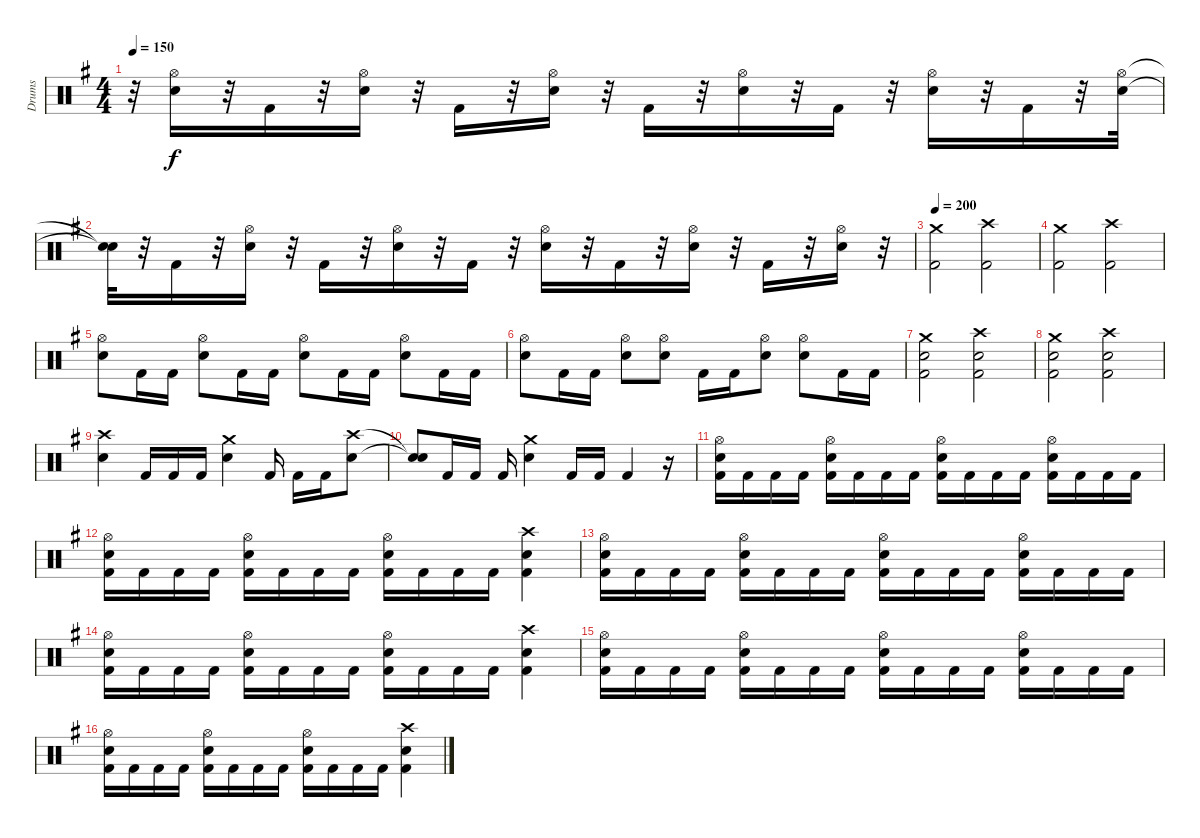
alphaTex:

\track ("Drums" "Drums") {instrument percussion}
\staff {score}
\articulation defaults
\ts (4 4)
\tempo 150
\clef neutral
\ks eminor
r.32{dy f} ("Hi-Hat (open)" "Snare (hit) 2").16 r.32 "Kick (hit) 2".16 r.32 ("Hi-Hat (open)" "Snare (hit) 2").16 r.32 "Kick (hit) 2".16 r.32 ("Hi-Hat (open)" "Snare (hit) 2").16 r.32 "Kick (hit) 2".16 r.32 ("Hi-Hat (open)" "Snare (hit) 2").16 r.32 "Kick (hit) 2".16 r.32 ("Hi-Hat (open)" "Snare (hit) 2").16 r.32 "Kick (hit) 2".16 r.32 ("Hi-Hat (open)" "Snare (hit) 2").32 |
("Snare (hit)"{t} "Snare (hit)"{t}).32 r.32 "Kick (hit) 2".16 r.32 ("Hi-Hat (open)" "Snare (hit) 2").16 r.32 "Kick (hit) 2".16 r.32 ("Hi-Hat (open)" "Snare (hit) 2").16 r.32 "Kick (hit) 2".16 r.32 ("Hi-Hat (open)" "Snare (hit) 2").16 r.32 "Kick (hit) 2".16 r.32 ("Hi-Hat (open)" "Snare (hit) 2").16 r.32 "Kick (hit) 2".16 r.32 ("Hi-Hat (open)" "Snare (hit) 2").16 r.32 |
\tempo 200
("Crash medium (hit)" "Kick (hit) 2").2 ("Crash high (hit)" "Kick (hit) 2").2 |
("Crash medium (hit)" "Kick (hit) 2").2 ("Crash high (hit)" "Kick (hit) 2").2 |
("Hi-Hat (open)" "Snare (hit) 2").8 "Kick (hit) 2".16 "Kick (hit) 2".16 ("Hi-Hat (open)" "Snare (hit) 2").8 "Kick (hit) 2".16 "Kick (hit) 2".16 ("Hi-Hat (open)" "Snare (hit) 2").8 "Kick (hit) 2".16 "Kick (hit) 2".16 ("Hi-Hat (open)" "Snare (hit) 2").8 "Kick (hit) 2".16 "Kick (hit) 2".16 |
("Hi-Hat (open)" "Snare (hit) 2").8 "Kick (hit) 2".16 "Kick (hit) 2".16 ("Hi-Hat (open)" "Snare (hit) 2").8 ("Hi-Hat (open)" "Snare (hit) 2").8 "Kick (hit) 2".16 "Kick (hit) 2".16 ("Hi-Hat (open)" "Snare (hit) 2").8 ("Hi-Hat (open)" "Snare (hit) 2").8 "Kick (hit) 2".16 "Kick (hit) 2".16 |
("Snare (hit) 2" "Crash medium (hit)" "Kick (hit) 2").2 ("Snare (hit) 2" "Crash high (hit)" "Kick (hit) 2").2 |
("Snare (hit) 2" "Crash medium (hit)" "Kick (hit) 2").2 ("Snare (hit) 2" "Crash high (hit)" "Kick (hit) 2").2 |
("Crash high (hit)" "Snare (hit) 2").4 "Kick (hit) 2".16 "Kick (hit) 2".16 "Kick (hit) 2".16 ("Crash medium (hit)" "Snare (hit) 2").4 "Kick (hit) 2".16 "Kick (hit) 2".16 "Kick (hit) 2".16 ("Crash high (hit)" "Snare (hit) 2").8 |
("Snare (hit)"{t} "Snare (hit)"{t}).8 "Kick (hit) 2".16 "Kick (hit) 2".16 "Kick (hit) 2".16 ("Crash medium (hit)" "Snare (hit) 2").4 "Kick (hit) 2".16 "Kick (hit) 2".16 "Kick (hit) 2".4 r.16 |
("Hi-Hat (open)" "Snare (hit) 2" "Kick (hit) 2").16 "Kick (hit) 2".16 "Kick (hit) 2".16 "Kick (hit) 2".16 ("Hi-Hat (open)" "Snare (hit) 2" "Kick (hit) 2").16 "Kick (hit) 2".16 "Kick (hit) 2".16 "Kick (hit) 2".16 ("Hi-Hat (open)" "Snare (hit) 2" "Kick (hit) 2").16 "Kick (hit) 2".16 "Kick (hit) 2".16 "Kick (hit) 2".16 ("Hi-Hat (open)" "Snare (hit) 2" "Kick (hit) 2").16 "Kick (hit) 2".16 "Kick (hit) 2".16 "Kick (hit) 2".16 |
("Hi-Hat (open)" "Snare (hit) 2" "Kick (hit) 2").16 "Kick (hit) 2".16 "Kick (hit) 2".16 "Kick (hit) 2".16 ("Hi-Hat (open)" "Snare (hit) 2" "Kick (hit) 2").16 "Kick (hit) 2".16 "Kick (hit) 2".16 "Kick (hit) 2".16 ("Hi-Hat (open)" "Snare (hit) 2" "Kick (hit) 2").16 "Kick (hit) 2".16 "Kick (hit) 2".16 "Kick (hit) 2".16 ("Crash high (hit)" "Snare (hit) 2" "Kick (hit) 2").4 |
("Hi-Hat (open)" "Snare (hit) 2" "Kick (hit) 2").16 "Kick (hit) 2".16 "Kick (hit) 2".16 "Kick (hit) 2".16 ("Hi-Hat (open)" "Snare (hit) 2" "Kick (hit) 2").16 "Kick (hit) 2".16 "Kick (hit) 2".16 "Kick (hit) 2".16 ("Hi-Hat (open)" "Snare (hit) 2" "Kick (hit) 2").16 "Kick (hit) 2".16 "Kick (hit) 2".16 "Kick (hit) 2".16 ("Hi-Hat (open)" "Snare (hit) 2" "Kick (hit) 2").16 "Kick (hit) 2".16 "Kick (hit) 2".16 "Kick (hit) 2".16 |
("Hi-Hat (open)" "Snare (hit) 2" "Kick (hit) 2").16 "Kick (hit) 2".16 "Kick (hit) 2".16 "Kick (hit) 2".16 ("Hi-Hat (open)" "Snare (hit) 2" "Kick (hit) 2").16 "Kick (hit) 2".16 "Kick (hit) 2".16 "Kick (hit) 2".16 ("Hi-Hat (open)" "Snare (hit) 2" "Kick (hit) 2").16 "Kick (hit) 2".16 "Kick (hit) 2".16 "Kick (hit) 2".16 ("Crash high (hit)" "Snare (hit) 2" "Kick (hit) 2").4 |
("Hi-Hat (open)" "Snare (hit) 2" "Kick (hit) 2").16 "Kick (hit) 2".16 "Kick (hit) 2".16 "Kick (hit) 2".16 ("Hi-Hat (open)" "Snare (hit) 2" "Kick (hit) 2").16 "Kick (hit) 2".16 "Kick (hit) 2".16 "Kick (hit) 2".16 ("Hi-Hat (open)" "Snare (hit) 2" "Kick (hit) 2").16 "Kick (hit) 2".16 "Kick (hit) 2".16 "Kick (hit) 2".16 ("Hi-Hat (open)" "Snare (hit) 2" "Kick (hit) 2").16 "Kick (hit) 2".16 "Kick (hit) 2".16 "Kick (hit) 2".16 |
("Hi-Hat (open)" "Snare (hit) 2" "Kick (hit) 2").16 "Kick (hit) 2".16 "Kick (hit) 2".16 "Kick (hit) 2".16 ("Hi-Hat (open)" "Snare (hit) 2" "Kick (hit) 2").16 "Kick (hit) 2".16 "Kick (hit) 2".16 "Kick (hit) 2".16 ("Hi-Hat (open)" "Snare (hit) 2" "Kick (hit) 2").16 "Kick (hit) 2".16 "Kick (hit) 2".16 "Kick (hit) 2".16 ("Crash high (hit)" "Snare (hit) 2" "Kick (hit) 2").4
